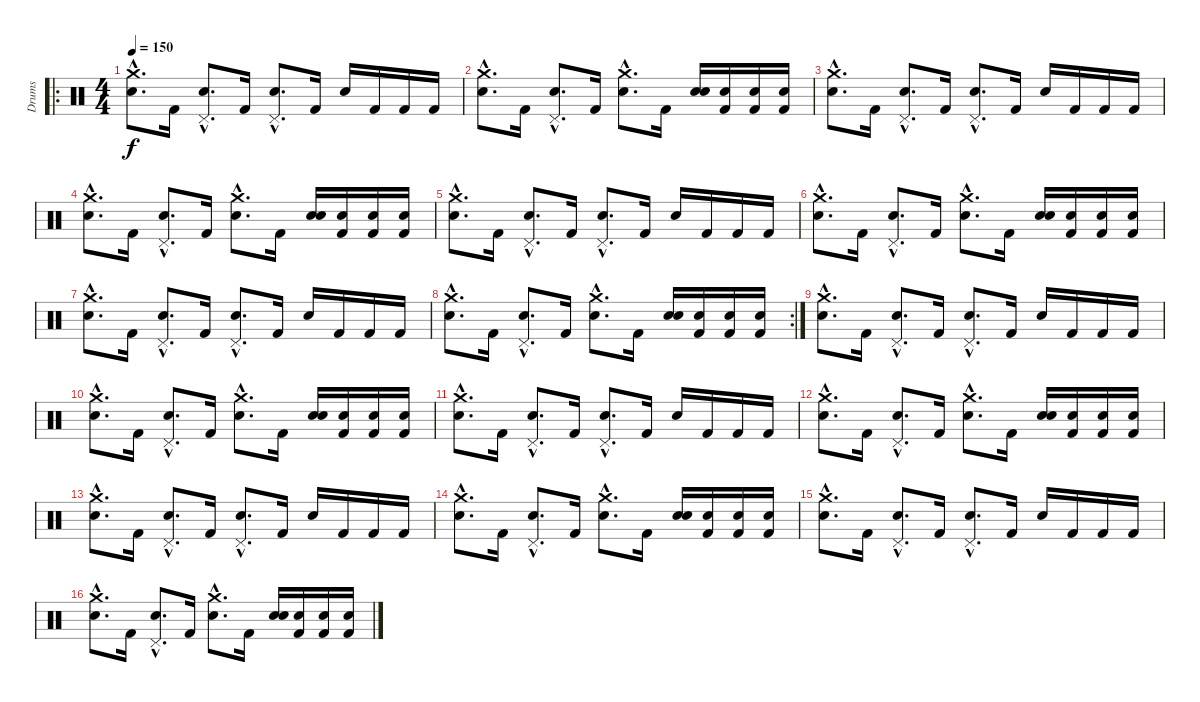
\track ("Drums" "Drums") {instrument percussion}
\staff {score}
\articulation defaults
\ro
\ts (4 4)
\tempo 150
\clef neutral
\ks c
("Electric Snare (hit)"{hac} "Crash medium (hit)").8{d dy f} "Kick (hit) 2".16 ("Electric Snare (hit)"{hac} "Pedal Hi-Hat (hit)"{hac}).8{d} "Kick (hit) 2".16 ("Electric Snare (hit)"{hac} "Pedal Hi-Hat (hit)"{hac}).8{d} "Kick (hit) 2".16 "Electric Snare (hit)".16 "Kick (hit) 2".16 "Kick (hit) 2".16 "Kick (hit) 2".16 |
("Electric Snare (hit)"{hac} "Crash medium (hit)").8{d} "Kick (hit) 2".16 ("Electric Snare (hit)"{hac} "Pedal Hi-Hat (hit)"{hac}).8{d} "Kick (hit) 2".16 ("Electric Snare (hit)"{hac} "Crash medium (hit)"{hac}).8{d} "Kick (hit) 2".16 ("Electric Snare (hit)" "Snare (hit) 2").16 ("Kick (hit) 2" "Snare (hit) 2").16 ("Kick (hit) 2" "Snare (hit) 2").16 ("Kick (hit) 2" "Snare (hit) 2").16 |
("Electric Snare (hit)"{hac} "Crash medium (hit)").8{d} "Kick (hit) 2".16 ("Electric Snare (hit)"{hac} "Pedal Hi-Hat (hit)"{hac}).8{d} "Kick (hit) 2".16 ("Electric Snare (hit)"{hac} "Pedal Hi-Hat (hit)"{hac}).8{d} "Kick (hit) 2".16 "Electric Snare (hit)".16 "Kick (hit) 2".16 "Kick (hit) 2".16 "Kick (hit) 2".16 |
("Electric Snare (hit)"{hac} "Crash medium (hit)").8{d} "Kick (hit) 2".16 ("Electric Snare (hit)"{hac} "Pedal Hi-Hat (hit)"{hac}).8{d} "Kick (hit) 2".16 ("Electric Snare (hit)"{hac} "Crash medium (hit)"{hac}).8{d} "Kick (hit) 2".16 ("Electric Snare (hit)" "Snare (hit) 2").16 ("Kick (hit) 2" "Snare (hit) 2").16 ("Kick (hit) 2" "Snare (hit) 2").16 ("Kick (hit) 2" "Snare (hit) 2").16 |
("Electric Snare (hit)"{hac} "Crash medium (hit)").8{d} "Kick (hit) 2".16 ("Electric Snare (hit)"{hac} "Pedal Hi-Hat (hit)"{hac}).8{d} "Kick (hit) 2".16 ("Electric Snare (hit)"{hac} "Pedal Hi-Hat (hit)"{hac}).8{d} "Kick (hit) 2".16 "Electric Snare (hit)".16 "Kick (hit) 2".16 "Kick (hit) 2".16 "Kick (hit) 2".16 |
("Electric Snare (hit)"{hac} "Crash medium (hit)").8{d} "Kick (hit) 2".16 ("Electric Snare (hit)"{hac} "Pedal Hi-Hat (hit)"{hac}).8{d} "Kick (hit) 2".16 ("Electric Snare (hit)"{hac} "Crash medium (hit)"{hac}).8{d} "Kick (hit) 2".16 ("Electric Snare (hit)" "Snare (hit) 2").16 ("Kick (hit) 2" "Snare (hit) 2").16 ("Kick (hit) 2" "Snare (hit) 2").16 ("Kick (hit) 2" "Snare (hit) 2").16 |
("Electric Snare (hit)"{hac} "Crash medium (hit)").8{d} "Kick (hit) 2".16 ("Electric Snare (hit)"{hac} "Pedal Hi-Hat (hit)"{hac}).8{d} "Kick (hit) 2".16 ("Electric Snare (hit)"{hac} "Pedal Hi-Hat (hit)"{hac}).8{d} "Kick (hit) 2".16 "Electric Snare (hit)".16 "Kick (hit) 2".16 "Kick (hit) 2".16 "Kick (hit) 2".16 |
\rc 2
("Electric Snare (hit)"{hac} "Crash medium (hit)").8{d} "Kick (hit) 2".16 ("Electric Snare (hit)"{hac} "Pedal Hi-Hat (hit)"{hac}).8{d} "Kick (hit) 2".16 ("Electric Snare (hit)"{hac} "Crash medium (hit)"{hac}).8{d} "Kick (hit) 2".16 ("Electric Snare (hit)" "Snare (hit) 2").16 ("Kick (hit) 2" "Snare (hit) 2").16 ("Kick (hit) 2" "Snare (hit) 2").16 ("Kick (hit) 2" "Snare (hit) 2").16 |
("Electric Snare (hit)"{hac} "Crash medium (hit)").8{d} "Kick (hit) 2".16 ("Electric Snare (hit)"{hac} "Pedal Hi-Hat (hit)"{hac}).8{d} "Kick (hit) 2".16 ("Electric Snare (hit)"{hac} "Pedal Hi-Hat (hit)"{hac}).8{d} "Kick (hit) 2".16 "Electric Snare (hit)".16 "Kick (hit) 2".16 "Kick (hit) 2".16 "Kick (hit) 2".16 |
("Electric Snare (hit)"{hac} "Crash medium (hit)").8{d} "Kick (hit) 2".16 ("Electric Snare (hit)"{hac} "Pedal Hi-Hat (hit)"{hac}).8{d} "Kick (hit) 2".16 ("Electric Snare (hit)"{hac} "Crash medium (hit)"{hac}).8{d} "Kick (hit) 2".16 ("Electric Snare (hit)" "Snare (hit) 2").16 ("Kick (hit) 2" "Snare (hit) 2").16 ("Kick (hit) 2" "Snare (hit) 2").16 ("Kick (hit) 2" "Snare (hit) 2").16 |
("Electric Snare (hit)"{hac} "Crash medium (hit)").8{d} "Kick (hit) 2".16 ("Electric Snare (hit)"{hac} "Pedal Hi-Hat (hit)"{hac}).8{d} "Kick (hit) 2".16 ("Electric Snare (hit)"{hac} "Pedal Hi-Hat (hit)"{hac}).8{d} "Kick (hit) 2".16 "Electric Snare (hit)".16 "Kick (hit) 2".16 "Kick (hit) 2".16 "Kick (hit) 2".16 |
("Electric Snare (hit)"{hac} "Crash medium (hit)").8{d} "Kick (hit) 2".16 ("Electric Snare (hit)"{hac} "Pedal Hi-Hat (hit)"{hac}).8{d} "Kick (hit) 2".16 ("Electric Snare (hit)"{hac} "Crash medium (hit)"{hac}).8{d} "Kick (hit) 2".16 ("Electric Snare (hit)" "Snare (hit) 2").16 ("Kick (hit) 2" "Snare (hit) 2").16 ("Kick (hit) 2" "Snare (hit) 2").16 ("Kick (hit) 2" "Snare (hit) 2").16 |
("Electric Snare (hit)"{hac} "Crash medium (hit)").8{d} "Kick (hit) 2".16 ("Electric Snare (hit)"{hac} "Pedal Hi-Hat (hit)"{hac}).8{d} "Kick (hit) 2".16 ("Electric Snare (hit)"{hac} "Pedal Hi-Hat (hit)"{hac}).8{d} "Kick (hit) 2".16 "Electric Snare (hit)".16 "Kick (hit) 2".16 "Kick (hit) 2".16 "Kick (hit) 2".16 |
("Electric Snare (hit)"{hac} "Crash medium (hit)").8{d} "Kick (hit) 2".16 ("Electric Snare (hit)"{hac} "Pedal Hi-Hat (hit)"{hac}).8{d} "Kick (hit) 2".16 ("Electric Snare (hit)"{hac} "Crash medium (hit)"{hac}).8{d} "Kick (hit) 2".16 ("Electric Snare (hit)" "Snare (hit) 2").16 ("Kick (hit) 2" "Snare (hit) 2").16 ("Kick (hit) 2" "Snare (hit) 2").16 ("Kick (hit) 2" "Snare (hit) 2").16 |
("Electric Snare (hit)"{hac} "Crash medium (hit)").8{d} "Kick (hit) 2".16 ("Electric Snare (hit)"{hac} "Pedal Hi-Hat (hit)"{hac}).8{d} "Kick (hit) 2".16 ("Electric Snare (hit)"{hac} "Pedal Hi-Hat (hit)"{hac}).8{d} "Kick (hit) 2".16 "Electric Snare (hit)".16 "Kick (hit) 2".16 "Kick (hit) 2".16 "Kick (hit) 2".16 |
("Electric Snare (hit)"{hac} "Crash medium (hit)").8{d} "Kick (hit) 2".16 ("Electric Snare (hit)"{hac} "Pedal Hi-Hat (hit)"{hac}).8{d} "Kick (hit) 2".16 ("Electric Snare (hit)"{hac} "Crash medium (hit)"{hac}).8{d} "Kick (hit) 2".16 ("Electric Snare (hit)" "Snare (hit) 2").16 ("Kick (hit) 2" "Snare (hit) 2").16 ("Kick (hit) 2" "Snare (hit) 2").16 ("Kick (hit) 2" "Snare (hit) 2").16
